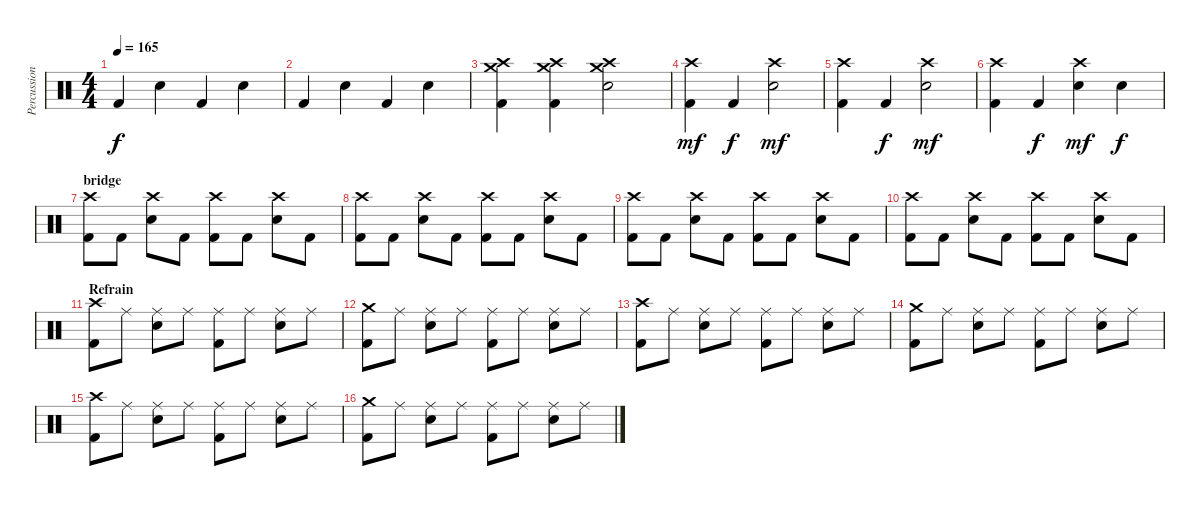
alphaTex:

\track ("Percussion" "Percussion") {instrument percussion}
\staff {score}
\articulation defaults
\ts (4 4)
\tempo 165
\clef neutral
\ks c "Kick (hit) 2".4{dy f} "Electric Snare (hit)".4 "Kick (hit) 2".4 "Electric Snare (hit)".4
|
"Kick (hit) 2".4 "Electric Snare (hit)".4 "Kick (hit) 2".4 "Electric Snare (hit)".4 |
("Crash high (hit)" "Crash medium (hit)" "Kick (hit) 2").4 ("Crash high (hit)" "Crash medium (hit)" "Kick (hit) 2").4 ("Crash high (hit)" "Crash medium (hit)" "Electric Snare (hit)").2 |
("Crash high (hit)" "Kick (hit) 2").4{dy mf} "Kick (hit) 2".4{dy f} ("Crash high (hit)" "Electric Snare (hit)").2{dy mf} |
("Crash high (hit)" "Kick (hit) 2").4 "Kick (hit) 2".4{dy f} ("Crash high (hit)" "Electric Snare (hit)").2{dy mf} |
("Crash high (hit)" "Kick (hit) 2").4 "Kick (hit) 2".4{dy f} ("Crash high (hit)" "Electric Snare (hit)").4{dy mf} "Electric Snare (hit)".4{dy f} |
\section ("" "bridge")
("Crash high (hit)" "Kick (hit) 2").8 "Kick (hit) 2".8 ("Crash high (hit)" "Electric Snare (hit)").8 "Kick (hit) 2".8 ("Crash high (hit)" "Kick (hit) 2").8 "Kick (hit) 2".8 ("Crash high (hit)" "Electric Snare (hit)").8 "Kick (hit) 2".8 |
("Crash high (hit)" "Kick (hit) 2").8 "Kick (hit) 2".8 ("Crash high (hit)" "Electric Snare (hit)").8 "Kick (hit) 2".8 ("Crash high (hit)" "Kick (hit) 2").8 "Kick (hit) 2".8 ("Crash high (hit)" "Electric Snare (hit)").8 "Kick (hit) 2".8 |
("Crash high (hit)" "Kick (hit) 2").8 "Kick (hit) 2".8 ("Crash high (hit)" "Electric Snare (hit)").8 "Kick (hit) 2".8 ("Crash high (hit)" "Kick (hit) 2").8 "Kick (hit) 2".8 ("Crash high (hit)" "Electric Snare (hit)").8 "Kick (hit) 2".8 |
("Crash high (hit)" "Kick (hit) 2").8 "Kick (hit) 2".8 ("Crash high (hit)" "Electric Snare (hit)").8 "Kick (hit) 2".8 ("Crash high (hit)" "Kick (hit) 2").8 "Kick (hit) 2".8 ("Crash high (hit)" "Electric Snare (hit)").8 "Kick (hit) 2".8 |
\section ("" "Refrain")
("Crash high (hit)" "Kick (hit) 2").8 "Ride (middle)".8 ("Ride (middle)" "Electric Snare (hit)").8 "Ride (middle)".8 ("Ride (middle)" "Kick (hit) 2").8 "Ride (middle)".8 ("Ride (middle)" "Electric Snare (hit)").8 "Ride (middle)".8 |
("Crash medium (hit)" "Kick (hit) 2").8 "Ride (middle)".8 ("Ride (middle)" "Electric Snare (hit)").8 "Ride (middle)".8 ("Ride (middle)" "Kick (hit) 2").8 "Ride (middle)".8 ("Ride (middle)" "Electric Snare (hit)").8 "Ride (middle)".8 |
("Crash high (hit)" "Kick (hit) 2").8 "Ride (middle)".8 ("Ride (middle)" "Electric Snare (hit)").8 "Ride (middle)".8 ("Ride (middle)" "Kick (hit) 2").8 "Ride (middle)".8 ("Ride (middle)" "Electric Snare (hit)").8 "Ride (middle)".8 |
("Crash medium (hit)" "Kick (hit) 2").8 "Ride (middle)".8 ("Ride (middle)" "Electric Snare (hit)").8 "Ride (middle)".8 ("Ride (middle)" "Kick (hit) 2").8 "Ride (middle)".8 ("Ride (middle)" "Electric Snare (hit)").8 "Ride (middle)".8 |
("Crash high (hit)" "Kick (hit) 2").8 "Ride (middle)".8 ("Ride (middle)" "Electric Snare (hit)").8 "Ride (middle)".8 ("Ride (middle)" "Kick (hit) 2").8 "Ride (middle)".8 ("Ride (middle)" "Electric Snare (hit)").8 "Ride (middle)".8 |
("Crash medium (hit)" "Kick (hit) 2").8 "Ride (middle)".8 ("Ride (middle)" "Electric Snare (hit)").8 "Ride (middle)".8 ("Ride (middle)" "Kick (hit) 2").8 "Ride (middle)".8 ("Ride (middle)" "Electric Snare (hit)").8 "Ride (middle)".8
